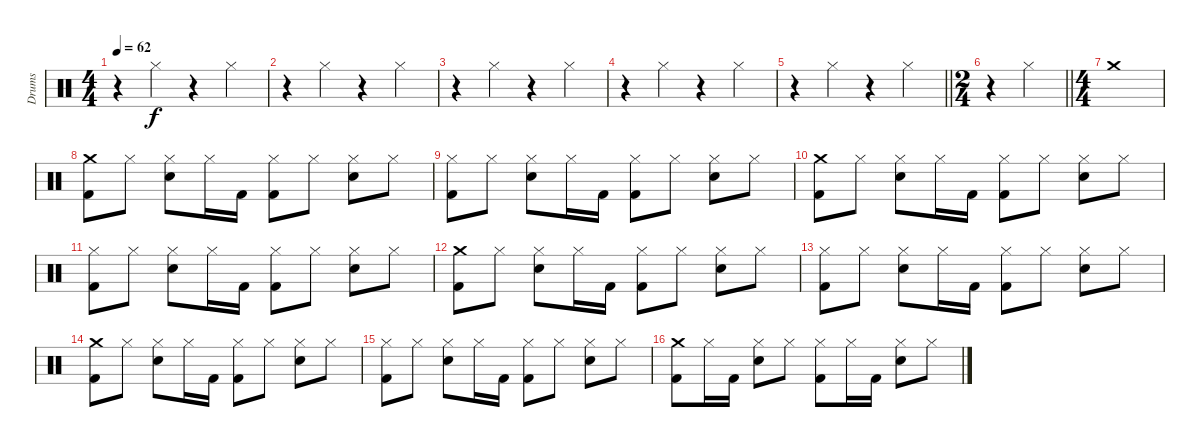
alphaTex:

\track ("Drums" "Drums") {instrument percussion}
\staff {score}
\articulation defaults
\ts (4 4)
\tempo 62
\clef neutral
\ks c
r.4{dy f} "Hi-Hat (closed)".4 r.4 "Hi-Hat (closed)".4 |
r.4 "Hi-Hat (closed)".4 r.4 "Hi-Hat (closed)".4 |
r.4 "Hi-Hat (closed)".4 r.4 "Hi-Hat (closed)".4 |
r.4 "Hi-Hat (closed)".4 r.4 "Hi-Hat (closed)".4 |
\barLineRight lightlight
r.4 "Hi-Hat (closed)".4 r.4 "Hi-Hat (closed)".4 |
\ts (2 4)
\barLineRight lightlight
r.4 "Hi-Hat (closed)".4 |
\ts (4 4)
"Crash medium (hit)".1 |
("Crash medium (hit)" "Kick (hit) 2").8 "Hi-Hat (closed)".8 ("Hi-Hat (closed)" "Electric Snare (hit)").8 "Hi-Hat (closed)".16 "Kick (hit) 2".16 ("Hi-Hat (closed)" "Kick (hit) 2").8 "Hi-Hat (closed)".8 ("Hi-Hat (closed)" "Electric Snare (hit)").8 "Hi-Hat (closed)".8 |
("Hi-Hat (closed)" "Kick (hit) 2").8 "Hi-Hat (closed)".8 ("Hi-Hat (closed)" "Electric Snare (hit)").8 "Hi-Hat (closed)".16 "Kick (hit) 2".16 ("Hi-Hat (closed)" "Kick (hit) 2").8 "Hi-Hat (closed)".8 ("Hi-Hat (closed)" "Electric Snare (hit)").8 "Hi-Hat (closed)".8 |
("Crash medium (hit)" "Kick (hit) 2").8 "Hi-Hat (closed)".8 ("Hi-Hat (closed)" "Electric Snare (hit)").8 "Hi-Hat (closed)".16 "Kick (hit) 2".16 ("Hi-Hat (closed)" "Kick (hit) 2").8 "Hi-Hat (closed)".8 ("Hi-Hat (closed)" "Electric Snare (hit)").8 "Hi-Hat (closed)".8 |
("Hi-Hat (closed)" "Kick (hit) 2").8 "Hi-Hat (closed)".8 ("Hi-Hat (closed)" "Electric Snare (hit)").8 "Hi-Hat (closed)".16 "Kick (hit) 2".16 ("Hi-Hat (closed)" "Kick (hit) 2").8 "Hi-Hat (closed)".8 ("Hi-Hat (closed)" "Electric Snare (hit)").8 "Hi-Hat (closed)".8 |
("Crash medium (hit)" "Kick (hit) 2").8 "Hi-Hat (closed)".8 ("Hi-Hat (closed)" "Electric Snare (hit)").8 "Hi-Hat (closed)".16 "Kick (hit) 2".16 ("Hi-Hat (closed)" "Kick (hit) 2").8 "Hi-Hat (closed)".8 ("Hi-Hat (closed)" "Electric Snare (hit)").8 "Hi-Hat (closed)".8 |
("Hi-Hat (closed)" "Kick (hit) 2").8 "Hi-Hat (closed)".8 ("Hi-Hat (closed)" "Electric Snare (hit)").8 "Hi-Hat (closed)".16 "Kick (hit) 2".16 ("Hi-Hat (closed)" "Kick (hit) 2").8 "Hi-Hat (closed)".8 ("Hi-Hat (closed)" "Electric Snare (hit)").8 "Hi-Hat (closed)".8 |
("Crash medium (hit)" "Kick (hit) 2").8 "Hi-Hat (closed)".8 ("Hi-Hat (closed)" "Electric Snare (hit)").8 "Hi-Hat (closed)".16 "Kick (hit) 2".16 ("Hi-Hat (closed)" "Kick (hit) 2").8 "Hi-Hat (closed)".8 ("Hi-Hat (closed)" "Electric Snare (hit)").8 "Hi-Hat (closed)".8 |
("Hi-Hat (closed)" "Kick (hit) 2").8 "Hi-Hat (closed)".8 ("Hi-Hat (closed)" "Electric Snare (hit)").8 "Hi-Hat (closed)".16 "Kick (hit) 2".16 ("Hi-Hat (closed)" "Kick (hit) 2").8 "Hi-Hat (closed)".8 ("Hi-Hat (closed)" "Electric Snare (hit)").8 "Hi-Hat (closed)".8 |
("Crash medium (hit)" "Kick (hit) 2").8 "Hi-Hat (closed)".16 "Kick (hit) 2".16 ("Hi-Hat (closed)" "Electric Snare (hit)").8 "Hi-Hat (closed)".8 ("Hi-Hat (closed)" "Kick (hit) 2").8 "Hi-Hat (closed)".16 "Kick (hit) 2".16 ("Hi-Hat (closed)" "Electric Snare (hit)").8 "Hi-Hat (closed)".8
